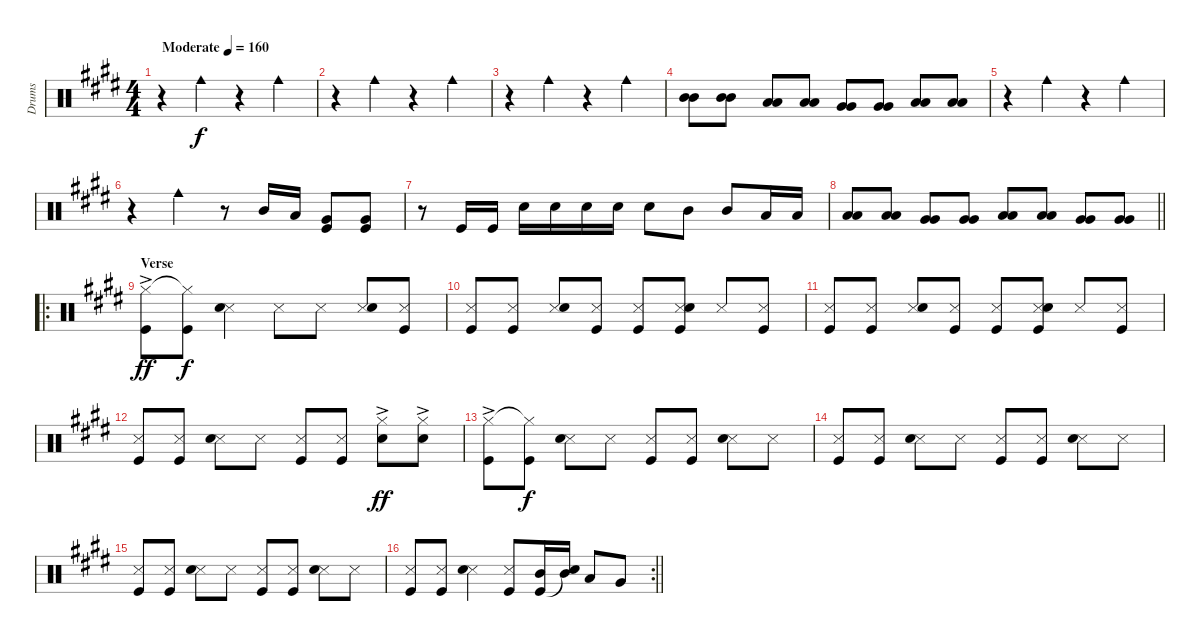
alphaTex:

\track ("Drums" "Drums") {instrument percussion}
\staff {score}
\articulation defaults
\ts (4 4)
\tempo (160 "Moderate")
\clef neutral
\ks e
r.4{dy f} "Cowbell medium (hit)".4 r.4 "Cowbell medium (hit)".4 |
r.4 "Cowbell medium (hit)".4 r.4 "Cowbell medium (hit)".4 |
r.4 "Cowbell medium (hit)".4 r.4 "Cowbell medium (hit)".4 |
("Mid Tom (hit)" "Mid Tom (hit)").8 ("Mid Tom (hit)" "Mid Tom (hit)").8 ("Low Tom (hit)" "Low Tom (hit)").8 ("Low Tom (hit)" "Low Tom (hit)").8 ("Very Low Tom (hit)" "Very Low Tom (hit)").8 ("Very Low Tom (hit)" "Very Low Tom (hit)").8 ("Low Floor Tom (hit)" "Low Floor Tom (hit)").8 ("Low Floor Tom (hit)" "Low Floor Tom (hit)").8 |
r.4 "Cowbell medium (hit)".4 r.4 "Cowbell medium (hit)".4 |
r.4 "Cowbell medium (hit)".4 r.8 "Mid Tom (hit)".16 "Low Tom (hit)".16 ("Very Low Tom (hit)" "Kick (hit)").8 ("Very Low Tom (hit)" "Kick (hit)").8 |
r.8 "Kick (hit)".16 "Kick (hit)".16 "Snare (hit) 2".16 "Snare (hit) 2".16 "Snare (hit) 2".16 "Snare (hit) 2".16 "Snare (hit) 2".8 "Mid Tom (hit)".8 "Mid Tom (hit)".8 "Low Tom (hit)".16 "Low Tom (hit)".16 |
\barLineRight lightlight
("Low Tom (hit)" "Low Tom (hit)").8 ("Low Tom (hit)" "Low Tom (hit)").8 ("Very Low Tom (hit)" "Very Low Tom (hit)").8 ("Very Low Tom (hit)" "Very Low Tom (hit)").8 ("Low Floor Tom (hit)" "Low Floor Tom (hit)").8 ("Low Floor Tom (hit)" "Low Floor Tom (hit)").8 ("Very Low Tom (hit)" "Very Low Tom (hit)").8 ("Very Low Tom (hit)" "Very Low Tom (hit)").8 |
\ro
\section ("" "Verse")
("Hi-Hat (closed)"{ac} "Kick (hit)").8{dy ff} ("Hi-Hat (closed)"{t} "Kick (hit)").8{dy f} ("Snare (side stick) 3" "Snare (hit) 2").4 "Snare (side stick) 3".8 "Snare (side stick) 3".8 ("Snare (side stick) 3" "Snare (hit) 2").8 ("Snare (side stick) 3" "Kick (hit)").8 |
("Snare (side stick) 3" "Kick (hit)").8 ("Snare (side stick) 3" "Kick (hit)").8 ("Snare (side stick) 3" "Snare (hit) 2").8 ("Snare (side stick) 3" "Kick (hit)").8 ("Snare (side stick) 3" "Kick (hit)").8 ("Snare (side stick) 3" "Snare (hit) 2" "Kick (hit)").8 "Snare (side stick) 3".8 ("Snare (side stick) 3" "Kick (hit)").8 |
("Snare (side stick) 3" "Kick (hit)").8 ("Snare (side stick) 3" "Kick (hit)").8 ("Snare (side stick) 3" "Snare (hit) 2").8 ("Snare (side stick) 3" "Kick (hit)").8 ("Snare (side stick) 3" "Kick (hit)").8 ("Snare (side stick) 3" "Snare (hit) 2" "Kick (hit)").8 "Snare (side stick) 3".8 ("Snare (side stick) 3" "Kick (hit)").8 |
("Snare (side stick) 3" "Kick (hit)").8 ("Snare (side stick) 3" "Kick (hit)").8 ("Snare (side stick) 3" "Snare (hit) 2").8 "Snare (side stick) 3".8 ("Snare (side stick) 3" "Kick (hit)").8 ("Snare (side stick) 3" "Kick (hit)").8 ("Hi-Hat (closed)"{ac} "Snare (hit) 2").8{dy ff} ("Hi-Hat (closed)"{ac} "Snare (hit) 2").8 |
("Hi-Hat (closed)"{ac} "Kick (hit)").8 ("Hi-Hat (closed)"{t} "Kick (hit)").8{dy f} ("Snare (side stick) 3" "Snare (hit) 2").8 "Snare (side stick) 3".8 ("Snare (side stick) 3" "Kick (hit)").8 ("Snare (side stick) 3" "Kick (hit)").8 ("Snare (side stick) 3" "Snare (hit) 2").8 "Snare (side stick) 3".8 |
("Snare (side stick) 3" "Kick (hit)").8 ("Snare (side stick) 3" "Kick (hit)").8 ("Snare (side stick) 3" "Snare (hit) 2").8 "Snare (side stick) 3".8 ("Snare (side stick) 3" "Kick (hit)").8 ("Snare (side stick) 3" "Kick (hit)").8 ("Snare (side stick) 3" "Snare (hit) 2").8 "Snare (side stick) 3".8 |
("Snare (side stick) 3" "Kick (hit)").8 ("Snare (side stick) 3" "Kick (hit)").8 ("Snare (side stick) 3" "Snare (hit) 2").8 "Snare (side stick) 3".8 ("Snare (side stick) 3" "Kick (hit)").8 ("Snare (side stick) 3" "Kick (hit)").8 ("Snare (side stick) 3" "Snare (hit) 2").8 "Snare (side stick) 3".8 |
\rc 2
\barLineRight lightlight
("Snare (side stick) 3" "Kick (hit)").8 ("Snare (side stick) 3" "Kick (hit)").8 ("Snare (side stick) 3" "Snare (hit) 2").4 ("Snare (side stick) 3" "Kick (hit)").8 ("Mid Tom (hit)" "Kick (hit)").16 ("Mid Tom (hit)" "Snare (hit) 2"{t}).16 "Low Tom (hit)".8 "Very Low Tom (hit)".8
